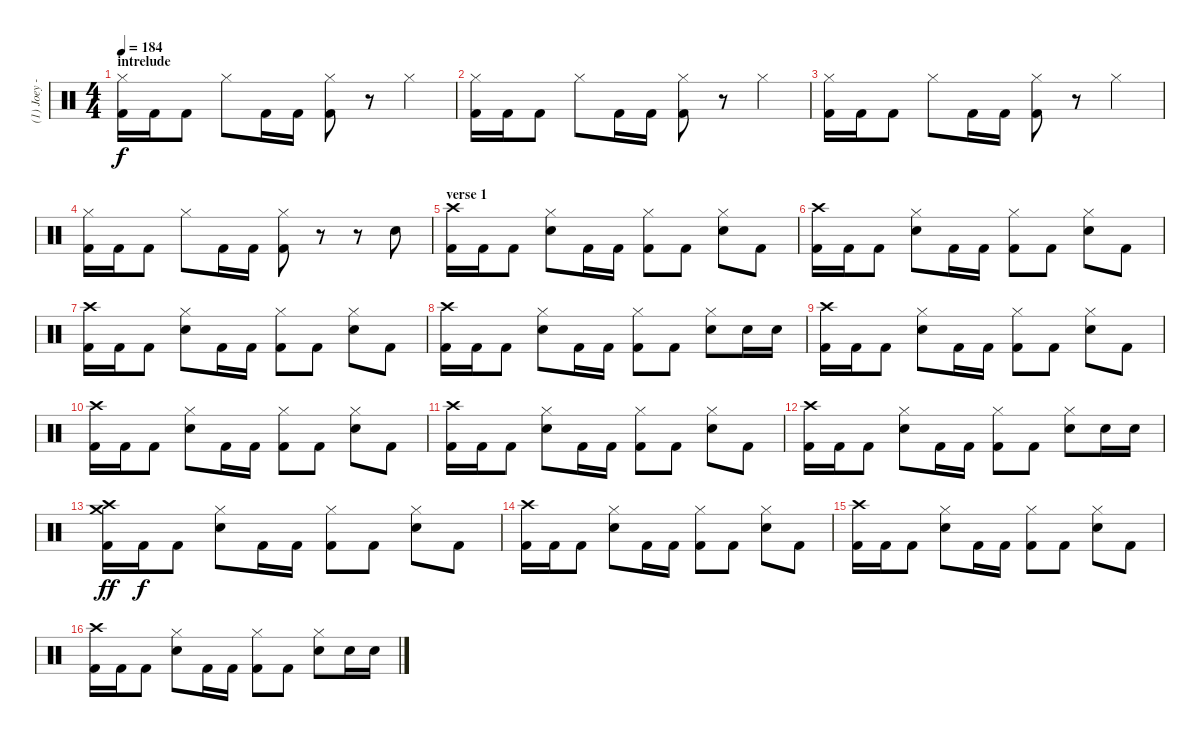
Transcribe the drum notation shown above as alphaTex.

\track ("(1) Joey - drums" "(1) Joey -") {instrument percussion}
\staff {score}
\articulation defaults
\ts (4 4)
\section ("" "intrelude")
\tempo 184
\clef neutral
\ks c
("Hi-Hat (closed)" "Kick (hit) 2").16{dy f} "Kick (hit) 2".16 "Kick (hit) 2".8 "Hi-Hat (closed)".8 "Kick (hit) 2".16 "Kick (hit) 2".16 ("Hi-Hat (closed)" "Kick (hit) 2").8 r.8 "Hi-Hat (closed)".4 |
("Hi-Hat (closed)" "Kick (hit) 2").16 "Kick (hit) 2".16 "Kick (hit) 2".8 "Hi-Hat (closed)".8 "Kick (hit) 2".16 "Kick (hit) 2".16 ("Hi-Hat (closed)" "Kick (hit) 2").8 r.8 "Hi-Hat (closed)".4 |
("Hi-Hat (closed)" "Kick (hit) 2").16 "Kick (hit) 2".16 "Kick (hit) 2".8 "Hi-Hat (closed)".8 "Kick (hit) 2".16 "Kick (hit) 2".16 ("Hi-Hat (closed)" "Kick (hit) 2").8 r.8 "Hi-Hat (closed)".4 |
("Hi-Hat (closed)" "Kick (hit) 2").16 "Kick (hit) 2".16 "Kick (hit) 2".8 "Hi-Hat (closed)".8 "Kick (hit) 2".16 "Kick (hit) 2".16 ("Hi-Hat (closed)" "Kick (hit) 2").8 r.8 r.8 "Electric Snare (hit)".8 |
\section ("" "verse 1")
("Crash high (hit)" "Kick (hit) 2").16 "Kick (hit) 2".16 "Kick (hit) 2".8 ("Hi-Hat (closed)" "Electric Snare (hit)").8 "Kick (hit) 2".16 "Kick (hit) 2".16 ("Hi-Hat (closed)" "Kick (hit) 2").8 "Kick (hit) 2".8 ("Hi-Hat (closed)" "Electric Snare (hit)").8 "Kick (hit) 2".8 |
("Crash high (hit)" "Kick (hit) 2").16 "Kick (hit) 2".16 "Kick (hit) 2".8 ("Hi-Hat (closed)" "Electric Snare (hit)").8 "Kick (hit) 2".16 "Kick (hit) 2".16 ("Hi-Hat (closed)" "Kick (hit) 2").8 "Kick (hit) 2".8 ("Hi-Hat (closed)" "Electric Snare (hit)").8 "Kick (hit) 2".8 |
("Crash high (hit)" "Kick (hit) 2").16 "Kick (hit) 2".16 "Kick (hit) 2".8 ("Hi-Hat (closed)" "Electric Snare (hit)").8 "Kick (hit) 2".16 "Kick (hit) 2".16 ("Hi-Hat (closed)" "Kick (hit) 2").8 "Kick (hit) 2".8 ("Hi-Hat (closed)" "Electric Snare (hit)").8 "Kick (hit) 2".8 |
("Crash high (hit)" "Kick (hit) 2").16 "Kick (hit) 2".16 "Kick (hit) 2".8 ("Hi-Hat (closed)" "Electric Snare (hit)").8 "Kick (hit) 2".16 "Kick (hit) 2".16 ("Hi-Hat (closed)" "Kick (hit) 2").8 "Kick (hit) 2".8 ("Hi-Hat (closed)" "Electric Snare (hit)").8 "Electric Snare (hit)".16 "Electric Snare (hit)".16 |
("Crash high (hit)" "Kick (hit) 2").16 "Kick (hit) 2".16 "Kick (hit) 2".8 ("Hi-Hat (closed)" "Electric Snare (hit)").8 "Kick (hit) 2".16 "Kick (hit) 2".16 ("Hi-Hat (closed)" "Kick (hit) 2").8 "Kick (hit) 2".8 ("Hi-Hat (closed)" "Electric Snare (hit)").8 "Kick (hit) 2".8 |
("Crash high (hit)" "Kick (hit) 2").16 "Kick (hit) 2".16 "Kick (hit) 2".8 ("Hi-Hat (closed)" "Electric Snare (hit)").8 "Kick (hit) 2".16 "Kick (hit) 2".16 ("Hi-Hat (closed)" "Kick (hit) 2").8 "Kick (hit) 2".8 ("Hi-Hat (closed)" "Electric Snare (hit)").8 "Kick (hit) 2".8 |
("Crash high (hit)" "Kick (hit) 2").16 "Kick (hit) 2".16 "Kick (hit) 2".8 ("Hi-Hat (closed)" "Electric Snare (hit)").8 "Kick (hit) 2".16 "Kick (hit) 2".16 ("Hi-Hat (closed)" "Kick (hit) 2").8 "Kick (hit) 2".8 ("Hi-Hat (closed)" "Electric Snare (hit)").8 "Kick (hit) 2".8 |
("Crash high (hit)" "Kick (hit) 2").16 "Kick (hit) 2".16 "Kick (hit) 2".8 ("Hi-Hat (closed)" "Electric Snare (hit)").8 "Kick (hit) 2".16 "Kick (hit) 2".16 ("Hi-Hat (closed)" "Kick (hit) 2").8 "Kick (hit) 2".8 ("Hi-Hat (closed)" "Electric Snare (hit)").8 "Electric Snare (hit)".16 "Electric Snare (hit)".16 |
("Crash high (hit)" "Crash medium (hit)" "Kick (hit) 2").16{dy ff} "Kick (hit) 2".16{dy f} "Kick (hit) 2".8 ("Hi-Hat (closed)" "Electric Snare (hit)").8 "Kick (hit) 2".16 "Kick (hit) 2".16 ("Hi-Hat (closed)" "Kick (hit) 2").8 "Kick (hit) 2".8 ("Hi-Hat (closed)" "Electric Snare (hit)").8 "Kick (hit) 2".8 |
("Crash high (hit)" "Kick (hit) 2").16 "Kick (hit) 2".16 "Kick (hit) 2".8 ("Hi-Hat (closed)" "Electric Snare (hit)").8 "Kick (hit) 2".16 "Kick (hit) 2".16 ("Hi-Hat (closed)" "Kick (hit) 2").8 "Kick (hit) 2".8 ("Hi-Hat (closed)" "Electric Snare (hit)").8 "Kick (hit) 2".8 |
("Crash high (hit)" "Kick (hit) 2").16 "Kick (hit) 2".16 "Kick (hit) 2".8 ("Hi-Hat (closed)" "Electric Snare (hit)").8 "Kick (hit) 2".16 "Kick (hit) 2".16 ("Hi-Hat (closed)" "Kick (hit) 2").8 "Kick (hit) 2".8 ("Hi-Hat (closed)" "Electric Snare (hit)").8 "Kick (hit) 2".8 |
("Crash high (hit)" "Kick (hit) 2").16 "Kick (hit) 2".16 "Kick (hit) 2".8 ("Hi-Hat (closed)" "Electric Snare (hit)").8 "Kick (hit) 2".16 "Kick (hit) 2".16 ("Hi-Hat (closed)" "Kick (hit) 2").8 "Kick (hit) 2".8 ("Hi-Hat (closed)" "Electric Snare (hit)").8 "Electric Snare (hit)".16 "Electric Snare (hit)".16
